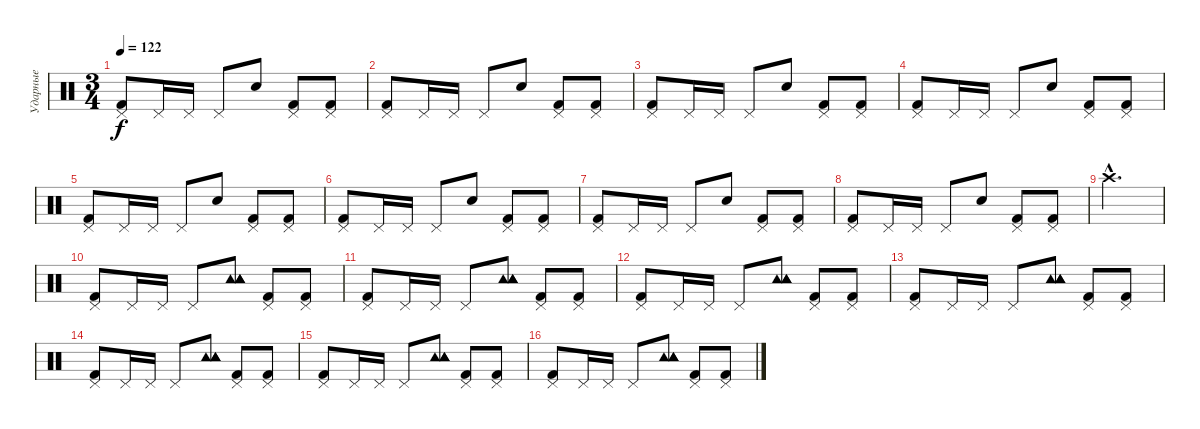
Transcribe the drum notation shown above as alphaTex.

\track ("Ударные" "Ударные") {instrument percussion}
\staff {score}
\articulation defaults
\ts (3 4)
\tempo 122
\clef neutral
\ks c
("Kick (hit) 2" "Pedal Hi-Hat (hit)").8{dy f} "Pedal Hi-Hat (hit)".16 "Pedal Hi-Hat (hit)".16 "Pedal Hi-Hat (hit)".8 "Electric Snare (hit)".8 ("Kick (hit) 2" "Pedal Hi-Hat (hit)").8 ("Kick (hit) 2" "Pedal Hi-Hat (hit)").8 |
("Kick (hit) 2" "Pedal Hi-Hat (hit)").8 "Pedal Hi-Hat (hit)".16 "Pedal Hi-Hat (hit)".16 "Pedal Hi-Hat (hit)".8 "Electric Snare (hit)".8 ("Kick (hit) 2" "Pedal Hi-Hat (hit)").8 ("Kick (hit) 2" "Pedal Hi-Hat (hit)").8 |
("Kick (hit) 2" "Pedal Hi-Hat (hit)").8 "Pedal Hi-Hat (hit)".16 "Pedal Hi-Hat (hit)".16 "Pedal Hi-Hat (hit)".8 "Electric Snare (hit)".8 ("Kick (hit) 2" "Pedal Hi-Hat (hit)").8 ("Kick (hit) 2" "Pedal Hi-Hat (hit)").8 |
("Kick (hit) 2" "Pedal Hi-Hat (hit)").8 "Pedal Hi-Hat (hit)".16 "Pedal Hi-Hat (hit)".16 "Pedal Hi-Hat (hit)".8 "Electric Snare (hit)".8 ("Kick (hit) 2" "Pedal Hi-Hat (hit)").8 ("Kick (hit) 2" "Pedal Hi-Hat (hit)").8 |
("Kick (hit) 2" "Pedal Hi-Hat (hit)").8 "Pedal Hi-Hat (hit)".16 "Pedal Hi-Hat (hit)".16 "Pedal Hi-Hat (hit)".8 "Electric Snare (hit)".8 ("Kick (hit) 2" "Pedal Hi-Hat (hit)").8 ("Kick (hit) 2" "Pedal Hi-Hat (hit)").8 |
("Kick (hit) 2" "Pedal Hi-Hat (hit)").8 "Pedal Hi-Hat (hit)".16 "Pedal Hi-Hat (hit)".16 "Pedal Hi-Hat (hit)".8 "Electric Snare (hit)".8 ("Kick (hit) 2" "Pedal Hi-Hat (hit)").8 ("Kick (hit) 2" "Pedal Hi-Hat (hit)").8 |
("Kick (hit) 2" "Pedal Hi-Hat (hit)").8 "Pedal Hi-Hat (hit)".16 "Pedal Hi-Hat (hit)".16 "Pedal Hi-Hat (hit)".8 "Electric Snare (hit)".8 ("Kick (hit) 2" "Pedal Hi-Hat (hit)").8 ("Kick (hit) 2" "Pedal Hi-Hat (hit)").8 |
("Kick (hit) 2" "Pedal Hi-Hat (hit)").8 "Pedal Hi-Hat (hit)".16 "Pedal Hi-Hat (hit)".16 "Pedal Hi-Hat (hit)".8 "Electric Snare (hit)".8 ("Kick (hit) 2" "Pedal Hi-Hat (hit)").8 ("Kick (hit) 2" "Pedal Hi-Hat (hit)").8 |
"Crash high (hit)"{hac}.2{d} |
("Kick (hit) 2" "Pedal Hi-Hat (hit)").8 "Pedal Hi-Hat (hit)".16 "Pedal Hi-Hat (hit)".16 "Pedal Hi-Hat (hit)".8 ("Tambourine (hit)" "Tambourine (hit)" "Tambourine (hit)" "Tambourine (hit)").8 ("Kick (hit) 2" "Pedal Hi-Hat (hit)").8 ("Kick (hit) 2" "Pedal Hi-Hat (hit)").8 |
("Kick (hit) 2" "Pedal Hi-Hat (hit)").8 "Pedal Hi-Hat (hit)".16 "Pedal Hi-Hat (hit)".16 "Pedal Hi-Hat (hit)".8 ("Tambourine (hit)" "Tambourine (hit)" "Tambourine (hit)" "Tambourine (hit)").8 ("Kick (hit) 2" "Pedal Hi-Hat (hit)").8 ("Kick (hit) 2" "Pedal Hi-Hat (hit)").8 |
("Kick (hit) 2" "Pedal Hi-Hat (hit)").8 "Pedal Hi-Hat (hit)".16 "Pedal Hi-Hat (hit)".16 "Pedal Hi-Hat (hit)".8 ("Tambourine (hit)" "Tambourine (hit)" "Tambourine (hit)" "Tambourine (hit)").8 ("Kick (hit) 2" "Pedal Hi-Hat (hit)").8 ("Kick (hit) 2" "Pedal Hi-Hat (hit)").8 |
("Kick (hit) 2" "Pedal Hi-Hat (hit)").8 "Pedal Hi-Hat (hit)".16 "Pedal Hi-Hat (hit)".16 "Pedal Hi-Hat (hit)".8 ("Tambourine (hit)" "Tambourine (hit)" "Tambourine (hit)" "Tambourine (hit)").8 ("Kick (hit) 2" "Pedal Hi-Hat (hit)").8 ("Kick (hit) 2" "Pedal Hi-Hat (hit)").8 |
("Kick (hit) 2" "Pedal Hi-Hat (hit)").8 "Pedal Hi-Hat (hit)".16 "Pedal Hi-Hat (hit)".16 "Pedal Hi-Hat (hit)".8 ("Tambourine (hit)" "Tambourine (hit)" "Tambourine (hit)" "Tambourine (hit)").8 ("Kick (hit) 2" "Pedal Hi-Hat (hit)").8 ("Kick (hit) 2" "Pedal Hi-Hat (hit)").8 |
("Kick (hit) 2" "Pedal Hi-Hat (hit)").8 "Pedal Hi-Hat (hit)".16 "Pedal Hi-Hat (hit)".16 "Pedal Hi-Hat (hit)".8 ("Tambourine (hit)" "Tambourine (hit)" "Tambourine (hit)" "Tambourine (hit)").8 ("Kick (hit) 2" "Pedal Hi-Hat (hit)").8 ("Kick (hit) 2" "Pedal Hi-Hat (hit)").8 |
("Kick (hit) 2" "Pedal Hi-Hat (hit)").8 "Pedal Hi-Hat (hit)".16 "Pedal Hi-Hat (hit)".16 "Pedal Hi-Hat (hit)".8 ("Tambourine (hit)" "Tambourine (hit)" "Tambourine (hit)" "Tambourine (hit)").8 ("Kick (hit) 2" "Pedal Hi-Hat (hit)").8 ("Kick (hit) 2" "Pedal Hi-Hat (hit)").8
